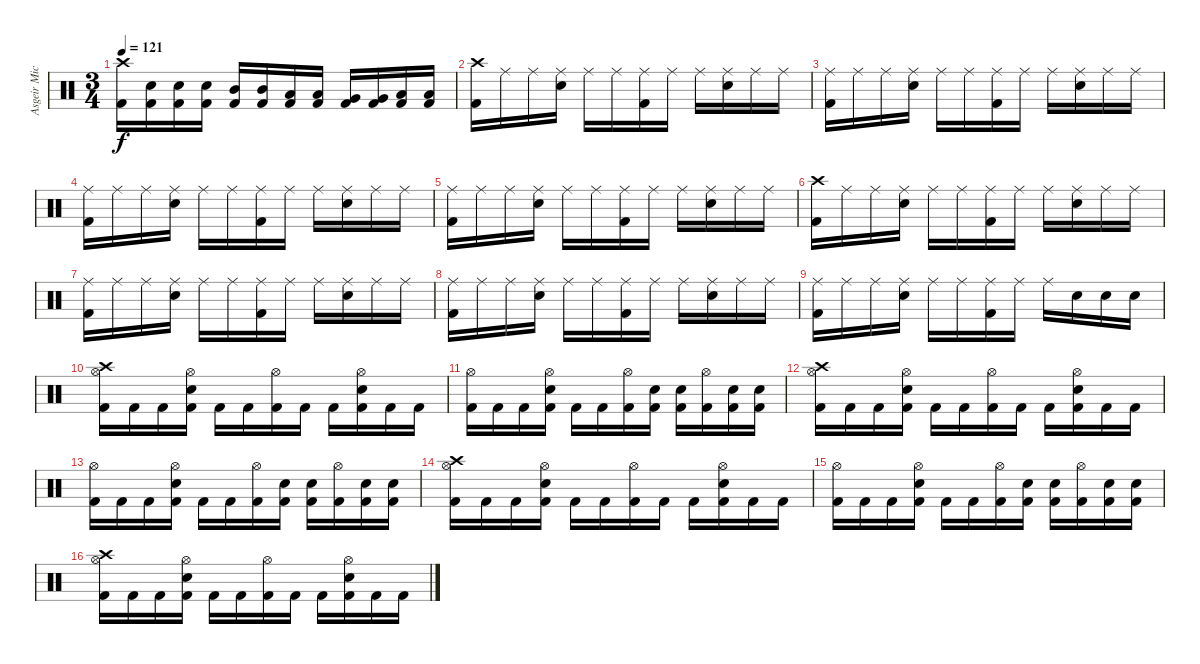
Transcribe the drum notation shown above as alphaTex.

\track ("Asgeir Mickelson" "Asgeir Mic") {instrument percussion}
\staff {score}
\articulation defaults
\ts (3 4)
\tempo 121
\clef neutral
\ks c
("Crash high (hit)" "Kick (hit) 2").16{dy f} ("Electric Snare (hit)" "Kick (hit) 2").16 ("Electric Snare (hit)" "Kick (hit) 2").16 ("Electric Snare (hit)" "Kick (hit) 2").16 ("Mid Tom (hit)" "Kick (hit) 2").16 ("Mid Tom (hit)" "Kick (hit) 2").16 ("Low Tom (hit)" "Kick (hit) 2").16 ("Low Tom (hit)" "Kick (hit) 2").16 ("Very Low Tom (hit)" "Kick (hit) 2").16 ("Very Low Tom (hit)" "Kick (hit) 2").16 ("Low Floor Tom (hit)" "Kick (hit) 2").16 ("Low Floor Tom (hit)" "Kick (hit) 2").16 |
("Crash high (hit)" "Kick (hit) 2").16 "Ride (middle)".16 "Ride (middle)".16 ("Ride (middle)" "Electric Snare (hit)").16 "Ride (middle)".16 "Ride (middle)".16 ("Ride (middle)" "Kick (hit) 2").16 "Ride (middle)".16 "Ride (middle)".16 ("Ride (middle)" "Electric Snare (hit)").16 "Ride (middle)".16 "Ride (middle)".16 |
("Ride (middle)" "Kick (hit) 2").16 "Ride (middle)".16 "Ride (middle)".16 ("Ride (middle)" "Electric Snare (hit)").16 "Ride (middle)".16 "Ride (middle)".16 ("Ride (middle)" "Kick (hit) 2").16 "Ride (middle)".16 "Ride (middle)".16 ("Ride (middle)" "Electric Snare (hit)").16 "Ride (middle)".16 "Ride (middle)".16 |
("Ride (middle)" "Kick (hit) 2").16 "Ride (middle)".16 "Ride (middle)".16 ("Ride (middle)" "Electric Snare (hit)").16 "Ride (middle)".16 "Ride (middle)".16 ("Ride (middle)" "Kick (hit) 2").16 "Ride (middle)".16 "Ride (middle)".16 ("Ride (middle)" "Electric Snare (hit)").16 "Ride (middle)".16 "Ride (middle)".16 |
("Ride (middle)" "Kick (hit) 2").16 "Ride (middle)".16 "Ride (middle)".16 ("Ride (middle)" "Electric Snare (hit)").16 "Ride (middle)".16 "Ride (middle)".16 ("Ride (middle)" "Kick (hit) 2").16 "Ride (middle)".16 "Ride (middle)".16 ("Ride (middle)" "Electric Snare (hit)").16 "Ride (middle)".16 "Ride (middle)".16 |
("Crash high (hit)" "Kick (hit) 2").16 "Ride (middle)".16 "Ride (middle)".16 ("Ride (middle)" "Electric Snare (hit)").16 "Ride (middle)".16 "Ride (middle)".16 ("Ride (middle)" "Kick (hit) 2").16 "Ride (middle)".16 "Ride (middle)".16 ("Ride (middle)" "Electric Snare (hit)").16 "Ride (middle)".16 "Ride (middle)".16 |
("Ride (middle)" "Kick (hit) 2").16 "Ride (middle)".16 "Ride (middle)".16 ("Ride (middle)" "Electric Snare (hit)").16 "Ride (middle)".16 "Ride (middle)".16 ("Ride (middle)" "Kick (hit) 2").16 "Ride (middle)".16 "Ride (middle)".16 ("Ride (middle)" "Electric Snare (hit)").16 "Ride (middle)".16 "Ride (middle)".16 |
("Ride (middle)" "Kick (hit) 2").16 "Ride (middle)".16 "Ride (middle)".16 ("Ride (middle)" "Electric Snare (hit)").16 "Ride (middle)".16 "Ride (middle)".16 ("Ride (middle)" "Kick (hit) 2").16 "Ride (middle)".16 "Ride (middle)".16 ("Ride (middle)" "Electric Snare (hit)").16 "Ride (middle)".16 "Ride (middle)".16 |
("Ride (middle)" "Kick (hit) 2").16 "Ride (middle)".16 "Ride (middle)".16 ("Ride (middle)" "Electric Snare (hit)").16 "Ride (middle)".16 "Ride (middle)".16 ("Ride (middle)" "Kick (hit) 2").16 "Ride (middle)".16 "Ride (middle)".16 "Electric Snare (hit)".16 "Electric Snare (hit)".16 "Electric Snare (hit)".16 |
("Hi-Hat (open)" "Crash high (hit)" "Kick (hit) 2").16 "Kick (hit) 2".16 "Kick (hit) 2".16 ("Hi-Hat (open)" "Electric Snare (hit)" "Kick (hit) 2").16 "Kick (hit) 2".16 "Kick (hit) 2".16 ("Hi-Hat (open)" "Kick (hit) 2").16 "Kick (hit) 2".16 "Kick (hit) 2".16 ("Hi-Hat (open)" "Electric Snare (hit)" "Kick (hit) 2").16 "Kick (hit) 2".16 "Kick (hit) 2".16 |
("Hi-Hat (open)" "Kick (hit) 2").16 "Kick (hit) 2".16 "Kick (hit) 2".16 ("Hi-Hat (open)" "Electric Snare (hit)" "Kick (hit) 2").16 "Kick (hit) 2".16 "Kick (hit) 2".16 ("Hi-Hat (open)" "Kick (hit) 2").16 ("Electric Snare (hit)" "Kick (hit) 2").16 ("Electric Snare (hit)" "Kick (hit) 2").16 ("Hi-Hat (open)" "Kick (hit) 2").16 ("Electric Snare (hit)" "Kick (hit) 2").16 ("Electric Snare (hit)" "Kick (hit) 2").16 |
("Hi-Hat (open)" "Crash high (hit)" "Kick (hit) 2").16 "Kick (hit) 2".16 "Kick (hit) 2".16 ("Hi-Hat (open)" "Electric Snare (hit)" "Kick (hit) 2").16 "Kick (hit) 2".16 "Kick (hit) 2".16 ("Hi-Hat (open)" "Kick (hit) 2").16 "Kick (hit) 2".16 "Kick (hit) 2".16 ("Hi-Hat (open)" "Electric Snare (hit)" "Kick (hit) 2").16 "Kick (hit) 2".16 "Kick (hit) 2".16 |
("Hi-Hat (open)" "Kick (hit) 2").16 "Kick (hit) 2".16 "Kick (hit) 2".16 ("Hi-Hat (open)" "Electric Snare (hit)" "Kick (hit) 2").16 "Kick (hit) 2".16 "Kick (hit) 2".16 ("Hi-Hat (open)" "Kick (hit) 2").16 ("Electric Snare (hit)" "Kick (hit) 2").16 ("Electric Snare (hit)" "Kick (hit) 2").16 ("Hi-Hat (open)" "Kick (hit) 2").16 ("Electric Snare (hit)" "Kick (hit) 2").16 ("Electric Snare (hit)" "Kick (hit) 2").16 |
("Hi-Hat (open)" "Crash high (hit)" "Kick (hit) 2").16 "Kick (hit) 2".16 "Kick (hit) 2".16 ("Hi-Hat (open)" "Electric Snare (hit)" "Kick (hit) 2").16 "Kick (hit) 2".16 "Kick (hit) 2".16 ("Hi-Hat (open)" "Kick (hit) 2").16 "Kick (hit) 2".16 "Kick (hit) 2".16 ("Hi-Hat (open)" "Electric Snare (hit)" "Kick (hit) 2").16 "Kick (hit) 2".16 "Kick (hit) 2".16 |
("Hi-Hat (open)" "Kick (hit) 2").16 "Kick (hit) 2".16 "Kick (hit) 2".16 ("Hi-Hat (open)" "Electric Snare (hit)" "Kick (hit) 2").16 "Kick (hit) 2".16 "Kick (hit) 2".16 ("Hi-Hat (open)" "Kick (hit) 2").16 ("Electric Snare (hit)" "Kick (hit) 2").16 ("Electric Snare (hit)" "Kick (hit) 2").16 ("Hi-Hat (open)" "Kick (hit) 2").16 ("Electric Snare (hit)" "Kick (hit) 2").16 ("Electric Snare (hit)" "Kick (hit) 2").16 |
("Hi-Hat (open)" "Crash high (hit)" "Kick (hit) 2").16 "Kick (hit) 2".16 "Kick (hit) 2".16 ("Hi-Hat (open)" "Electric Snare (hit)" "Kick (hit) 2").16 "Kick (hit) 2".16 "Kick (hit) 2".16 ("Hi-Hat (open)" "Kick (hit) 2").16 "Kick (hit) 2".16 "Kick (hit) 2".16 ("Hi-Hat (open)" "Electric Snare (hit)" "Kick (hit) 2").16 "Kick (hit) 2".16 "Kick (hit) 2".16
